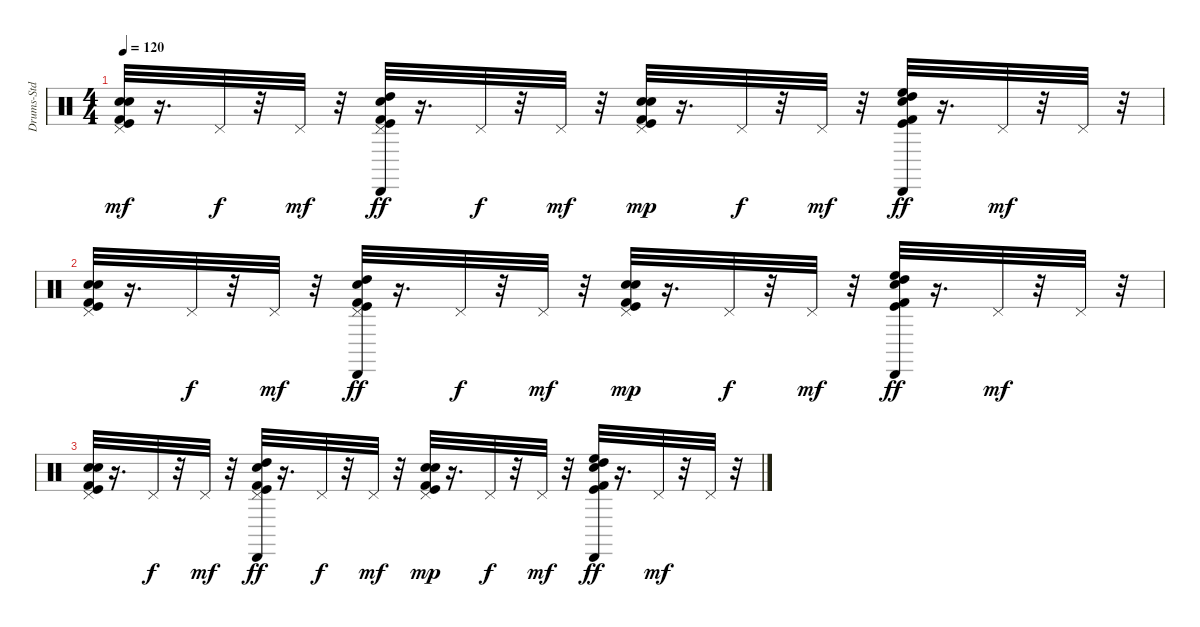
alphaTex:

\track ("Drums-Std" "Drums-Std") {instrument percussion}
\staff {score}
\articulation defaults
\ts (4 4)
\tempo 120
\clef neutral
\ks c
("Snare (hit) 2" "Electric Snare (hit)" "Pedal Hi-Hat (hit)" "Kick (hit) 2" "Kick (hit)").32{dy mf} r.16{d} "Pedal Hi-Hat (hit)".32{dy f} r.32 "Pedal Hi-Hat (hit)".32{dy mf} r.32 ("Kick (hit) 2" "Kick (hit)" "Snare (hit) 2" "High Tom (hit)" "Cabasa (hit)" "Pedal Hi-Hat (hit)").32{dy ff} r.16{d} "Pedal Hi-Hat (hit)".32{dy f} r.32 "Pedal Hi-Hat (hit)".32{dy mf} r.32 ("Electric Snare (hit)" "Snare (hit) 2" "Pedal Hi-Hat (hit)" "Kick (hit) 2" "Kick (hit)").32{dy mp} r.16{d} "Pedal Hi-Hat (hit)".32{dy f} r.32 "Pedal Hi-Hat (hit)".32{dy mf} r.32 ("Kick (hit) 2" "Kick (hit)" "Snare (hit) 2" "High Floor Tom (hit)" "High Tom (hit)" "Cabasa (hit)").32{dy ff} r.16{d} "Pedal Hi-Hat (hit)".32{dy mf} r.32 "Pedal Hi-Hat (hit)".32 r.32 |
("Snare (hit) 2" "Electric Snare (hit)" "Pedal Hi-Hat (hit)" "Kick (hit) 2" "Kick (hit)").32 r.16{d} "Pedal Hi-Hat (hit)".32{dy f} r.32 "Pedal Hi-Hat (hit)".32{dy mf} r.32 ("Kick (hit) 2" "Kick (hit)" "Snare (hit) 2" "High Tom (hit)" "Cabasa (hit)" "Pedal Hi-Hat (hit)").32{dy ff} r.16{d} "Pedal Hi-Hat (hit)".32{dy f} r.32 "Pedal Hi-Hat (hit)".32{dy mf} r.32 ("Electric Snare (hit)" "Snare (hit) 2" "Pedal Hi-Hat (hit)" "Kick (hit) 2" "Kick (hit)").32{dy mp} r.16{d} "Pedal Hi-Hat (hit)".32{dy f} r.32 "Pedal Hi-Hat (hit)".32{dy mf} r.32 ("Kick (hit) 2" "Kick (hit)" "Snare (hit) 2" "High Floor Tom (hit)" "High Tom (hit)" "Cabasa (hit)").32{dy ff} r.16{d} "Pedal Hi-Hat (hit)".32{dy mf} r.32 "Pedal Hi-Hat (hit)".32 r.32 |
("Snare (hit) 2" "Electric Snare (hit)" "Pedal Hi-Hat (hit)" "Kick (hit) 2" "Kick (hit)").32 r.16{d} "Pedal Hi-Hat (hit)".32{dy f} r.32 "Pedal Hi-Hat (hit)".32{dy mf} r.32 ("Kick (hit) 2" "Kick (hit)" "Snare (hit) 2" "High Tom (hit)" "Cabasa (hit)" "Pedal Hi-Hat (hit)").32{dy ff} r.16{d} "Pedal Hi-Hat (hit)".32{dy f} r.32 "Pedal Hi-Hat (hit)".32{dy mf} r.32 ("Electric Snare (hit)" "Snare (hit) 2" "Pedal Hi-Hat (hit)" "Kick (hit) 2" "Kick (hit)").32{dy mp} r.16{d} "Pedal Hi-Hat (hit)".32{dy f} r.32 "Pedal Hi-Hat (hit)".32{dy mf} r.32 ("Kick (hit) 2" "Kick (hit)" "Snare (hit) 2" "High Floor Tom (hit)" "High Tom (hit)" "Cabasa (hit)").32{dy ff} r.16{d} "Pedal Hi-Hat (hit)".32{dy mf} r.32 "Pedal Hi-Hat (hit)".32 r.32
